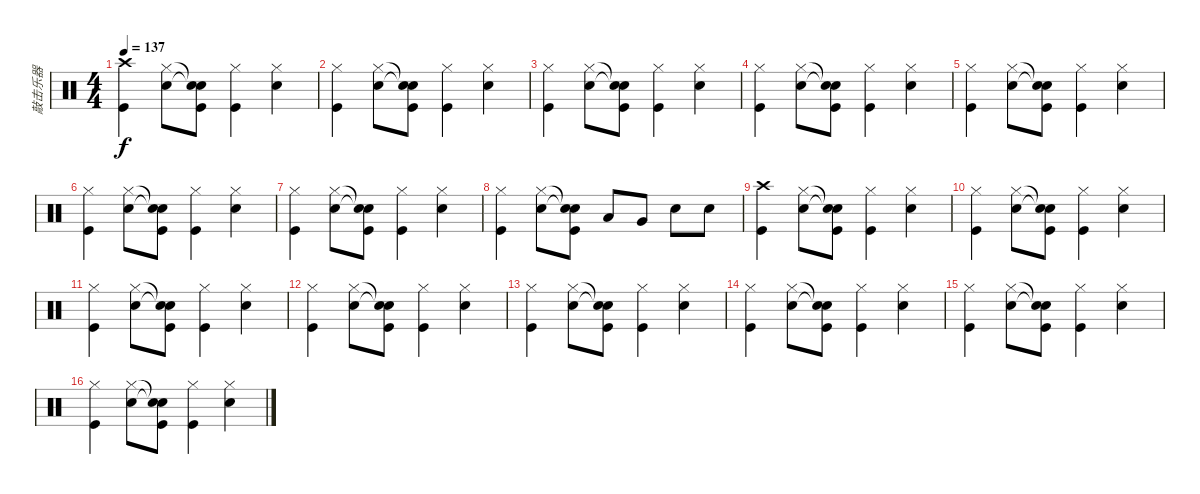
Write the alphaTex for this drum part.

\track ("敲击乐器" "敲击乐器") {instrument percussion}
\staff {score}
\articulation defaults
\ts (4 4)
\tempo 137
\clef neutral
\ks c
("Crash high (hit)" "Kick (hit)").4{dy f} ("Hi-Hat (closed)" "Snare (hit) 2").8 ("Snare (hit)"{t} "Snare (hit)"{t} "Kick (hit)").8 ("Hi-Hat (closed)" "Kick (hit)").4 ("Hi-Hat (closed)" "Snare (hit) 2").4 |
("Hi-Hat (closed)" "Kick (hit)").4 ("Hi-Hat (closed)" "Snare (hit) 2").8 ("Snare (hit)"{t} "Snare (hit)"{t} "Kick (hit)").8 ("Hi-Hat (closed)" "Kick (hit)").4 ("Hi-Hat (closed)" "Snare (hit) 2").4 |
("Hi-Hat (closed)" "Kick (hit)").4 ("Hi-Hat (closed)" "Snare (hit) 2").8 ("Snare (hit)"{t} "Snare (hit)"{t} "Kick (hit)").8 ("Hi-Hat (closed)" "Kick (hit)").4 ("Hi-Hat (closed)" "Snare (hit) 2").4 |
("Hi-Hat (closed)" "Kick (hit)").4 ("Hi-Hat (closed)" "Snare (hit) 2").8 ("Snare (hit)"{t} "Snare (hit)"{t} "Kick (hit)").8 ("Hi-Hat (closed)" "Kick (hit)").4 ("Hi-Hat (closed)" "Snare (hit) 2").4 |
("Hi-Hat (closed)" "Kick (hit)").4 ("Hi-Hat (closed)" "Snare (hit) 2").8 ("Snare (hit)"{t} "Snare (hit)"{t} "Kick (hit)").8 ("Hi-Hat (closed)" "Kick (hit)").4 ("Hi-Hat (closed)" "Snare (hit) 2").4 |
("Hi-Hat (closed)" "Kick (hit)").4 ("Hi-Hat (closed)" "Snare (hit) 2").8 ("Snare (hit)"{t} "Snare (hit)"{t} "Kick (hit)").8 ("Hi-Hat (closed)" "Kick (hit)").4 ("Hi-Hat (closed)" "Snare (hit) 2").4 |
("Hi-Hat (closed)" "Kick (hit)").4 ("Hi-Hat (closed)" "Snare (hit) 2").8 ("Snare (hit)"{t} "Snare (hit)"{t} "Kick (hit)").8 ("Hi-Hat (closed)" "Kick (hit)").4 ("Hi-Hat (closed)" "Snare (hit) 2").4 |
("Hi-Hat (closed)" "Kick (hit)").4 ("Hi-Hat (closed)" "Snare (hit) 2").8 ("Snare (hit)"{t} "Snare (hit)"{t} "Kick (hit)").8 "Low Tom (hit)".8 "Very Low Tom (hit)".8 "Snare (hit) 2".8 "Snare (hit) 2".8 |
("Crash high (hit)" "Kick (hit)").4 ("Hi-Hat (closed)" "Snare (hit) 2").8 ("Snare (hit)"{t} "Snare (hit)"{t} "Kick (hit)").8 ("Hi-Hat (closed)" "Kick (hit)").4 ("Hi-Hat (closed)" "Snare (hit) 2").4 |
("Hi-Hat (closed)" "Kick (hit)").4 ("Hi-Hat (closed)" "Snare (hit) 2").8 ("Snare (hit)"{t} "Snare (hit)"{t} "Kick (hit)").8 ("Hi-Hat (closed)" "Kick (hit)").4 ("Hi-Hat (closed)" "Snare (hit) 2").4 |
("Hi-Hat (closed)" "Kick (hit)").4 ("Hi-Hat (closed)" "Snare (hit) 2").8 ("Snare (hit)"{t} "Snare (hit)"{t} "Kick (hit)").8 ("Hi-Hat (closed)" "Kick (hit)").4 ("Hi-Hat (closed)" "Snare (hit) 2").4 |
("Hi-Hat (closed)" "Kick (hit)").4 ("Hi-Hat (closed)" "Snare (hit) 2").8 ("Snare (hit)"{t} "Snare (hit)"{t} "Kick (hit)").8 ("Hi-Hat (closed)" "Kick (hit)").4 ("Hi-Hat (closed)" "Snare (hit) 2").4 |
("Hi-Hat (closed)" "Kick (hit)").4 ("Hi-Hat (closed)" "Snare (hit) 2").8 ("Snare (hit)"{t} "Snare (hit)"{t} "Kick (hit)").8 ("Hi-Hat (closed)" "Kick (hit)").4 ("Hi-Hat (closed)" "Snare (hit) 2").4 |
("Hi-Hat (closed)" "Kick (hit)").4 ("Hi-Hat (closed)" "Snare (hit) 2").8 ("Snare (hit)"{t} "Snare (hit)"{t} "Kick (hit)").8 ("Hi-Hat (closed)" "Kick (hit)").4 ("Hi-Hat (closed)" "Snare (hit) 2").4 |
("Hi-Hat (closed)" "Kick (hit)").4 ("Hi-Hat (closed)" "Snare (hit) 2").8 ("Snare (hit)"{t} "Snare (hit)"{t} "Kick (hit)").8 ("Hi-Hat (closed)" "Kick (hit)").4 ("Hi-Hat (closed)" "Snare (hit) 2").4 |
("Hi-Hat (closed)" "Kick (hit)").4 ("Hi-Hat (closed)" "Snare (hit) 2").8 ("Snare (hit)"{t} "Snare (hit)"{t} "Kick (hit)").8 ("Hi-Hat (closed)" "Kick (hit)").4 ("Hi-Hat (closed)" "Snare (hit) 2").4
